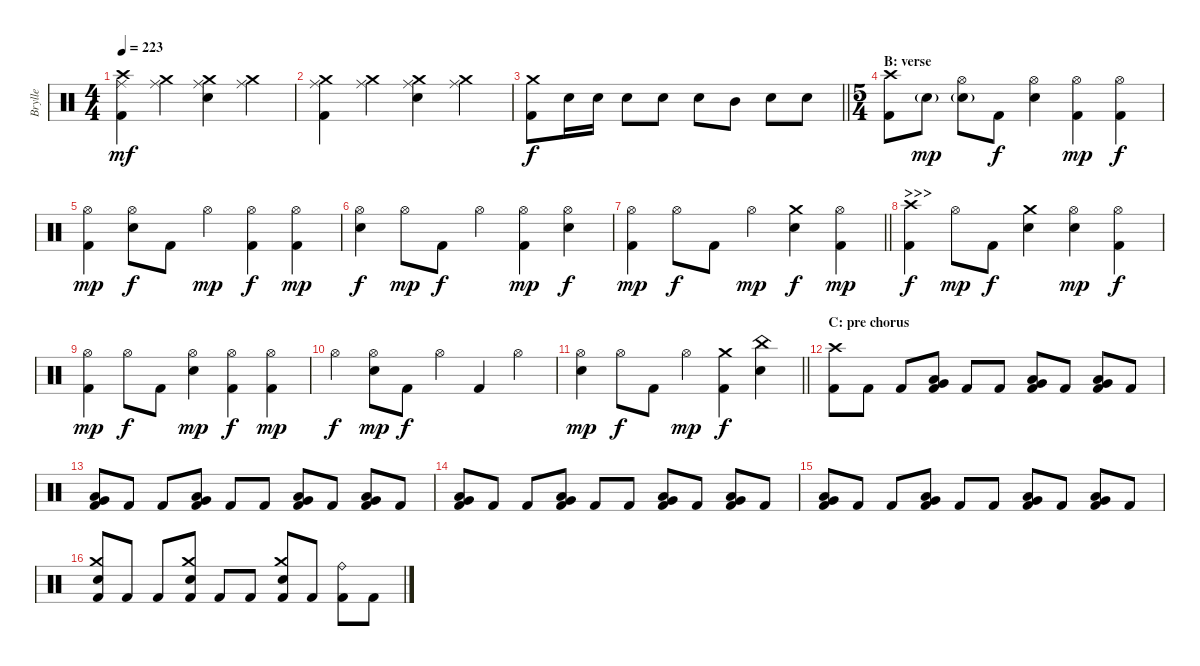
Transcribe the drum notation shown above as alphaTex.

\track ("Brylle" "Brylle") {instrument percussion}
\staff {score}
\articulation defaults
\ts (4 4)
\tempo 223
\clef neutral
\ks c
("Crash high (hit)" "Ride (middle)" "Kick (hit) 2").4{dy mf} ("Crash medium (hit)" "Ride (middle)").4 ("Crash medium (hit)" "Ride (middle)" "Electric Snare (hit)").4 ("Crash medium (hit)" "Ride (middle)").4 |
("Crash medium (hit)" "Ride (middle)" "Kick (hit) 2").4 ("Crash medium (hit)" "Ride (middle)").4 ("Crash medium (hit)" "Ride (middle)" "Electric Snare (hit)").4 ("Crash medium (hit)" "Ride (middle)").4 |
\barLineRight lightlight
("Crash medium (hit)" "Kick (hit) 2").8{dy f} "Electric Snare (hit)".16 "Electric Snare (hit)".16 "Electric Snare (hit)".8 "Electric Snare (hit)".8 "Electric Snare (hit)".8 "Mid Tom (hit)".8 "Electric Snare (hit)".8 "Electric Snare (hit)".8 |
\ts (5 4)
\section ("" "B: verse")
("Crash high (hit)" "Kick (hit) 2").8 "Electric Snare (hit)"{g}.8{dy mp} ("Hi-Hat (open)" "Electric Snare (hit)"{g}).8 "Kick (hit) 2".8{dy f} ("Hi-Hat (open)" "Electric Snare (hit)").4 ("Hi-Hat (open)" "Kick (hit) 2").4{dy mp} ("Hi-Hat (open)" "Kick (hit) 2").4{dy f} |
("Hi-Hat (open)" "Kick (hit) 2").4{dy mp} ("Hi-Hat (open)" "Electric Snare (hit)").8{dy f} "Kick (hit) 2".8 "Hi-Hat (open)".4{dy mp} ("Hi-Hat (open)" "Kick (hit) 2").4{dy f} ("Hi-Hat (open)" "Kick (hit) 2").4{dy mp} |
("Hi-Hat (open)" "Electric Snare (hit)").4{dy f} "Hi-Hat (open)".8{dy mp} "Kick (hit) 2".8{dy f} "Hi-Hat (open)".4 ("Hi-Hat (open)" "Kick (hit) 2").4{dy mp} ("Hi-Hat (open)" "Electric Snare (hit)").4{dy f} |
\barLineRight lightlight
("Hi-Hat (open)" "Kick (hit) 2").4{dy mp} "Hi-Hat (open)".8{dy f} "Kick (hit) 2".8 "Hi-Hat (open)".4{dy mp} ("Crash medium (hit)" "Electric Snare (hit)").4{dy f} ("Hi-Hat (open)" "Kick (hit) 2").4{dy mp} |
\section ("" ">>>")
("Crash high (hit)" "Kick (hit) 2").4{dy f} "Hi-Hat (open)".8{dy mp} "Kick (hit) 2".8{dy f} ("Crash medium (hit)" "Electric Snare (hit)").4 ("Hi-Hat (open)" "Electric Snare (hit)").4{dy mp} ("Hi-Hat (open)" "Kick (hit) 2").4{dy f} |
("Hi-Hat (open)" "Kick (hit) 2").4{dy mp} "Hi-Hat (open)".8{dy f} "Kick (hit) 2".8 ("Hi-Hat (open)" "Electric Snare (hit)").4{dy mp} ("Hi-Hat (open)" "Kick (hit) 2").4{dy f} ("Hi-Hat (open)" "Kick (hit) 2").4{dy mp} |
"Hi-Hat (open)".4{dy f} ("Hi-Hat (open)" "Electric Snare (hit)").8{dy mp} "Kick (hit) 2".8{dy f} "Hi-Hat (open)".4 "Kick (hit) 2".4 "Hi-Hat (open)".4 |
\barLineRight lightlight
("Hi-Hat (open)" "Electric Snare (hit)").4{dy mp} "Hi-Hat (open)".8{dy f} "Kick (hit) 2".8 "Hi-Hat (open)".4{dy mp} ("Crash medium (hit)" "Kick (hit) 2").4{dy f} ("China (hit)" "Electric Snare (hit)").4 |
\section ("" "C: pre chorus")
("Crash high (hit)" "Kick (hit) 2").8 "Kick (hit) 2".8 "Kick (hit) 2".8 ("Low Tom (hit)" "Very Low Tom (hit)" "Kick (hit) 2").8 "Kick (hit) 2".8 "Kick (hit) 2".8 ("Low Tom (hit)" "Very Low Tom (hit)" "Kick (hit) 2").8 "Kick (hit) 2".8 ("Low Tom (hit)" "Very Low Tom (hit)" "Kick (hit) 2").8 "Kick (hit) 2".8 |
("Low Tom (hit)" "Very Low Tom (hit)" "Kick (hit) 2").8 "Kick (hit) 2".8 "Kick (hit) 2".8 ("Low Tom (hit)" "Very Low Tom (hit)" "Kick (hit) 2").8 "Kick (hit) 2".8 "Kick (hit) 2".8 ("Low Tom (hit)" "Very Low Tom (hit)" "Kick (hit) 2").8 "Kick (hit) 2".8 ("Low Tom (hit)" "Very Low Tom (hit)" "Kick (hit) 2").8 "Kick (hit) 2".8 |
("Low Tom (hit)" "Very Low Tom (hit)" "Kick (hit) 2").8 "Kick (hit) 2".8 "Kick (hit) 2".8 ("Low Tom (hit)" "Very Low Tom (hit)" "Kick (hit) 2").8 "Kick (hit) 2".8 "Kick (hit) 2".8 ("Low Tom (hit)" "Very Low Tom (hit)" "Kick (hit) 2").8 "Kick (hit) 2".8 ("Low Tom (hit)" "Very Low Tom (hit)" "Kick (hit) 2").8 "Kick (hit) 2".8 |
("Low Tom (hit)" "Very Low Tom (hit)" "Kick (hit) 2").8 "Kick (hit) 2".8 "Kick (hit) 2".8 ("Low Tom (hit)" "Very Low Tom (hit)" "Kick (hit) 2").8 "Kick (hit) 2".8 "Kick (hit) 2".8 ("Low Tom (hit)" "Very Low Tom (hit)" "Kick (hit) 2").8 "Kick (hit) 2".8 ("Low Tom (hit)" "Very Low Tom (hit)" "Kick (hit) 2").8 "Kick (hit) 2".8 |
("Crash medium (hit)" "Electric Snare (hit)" "Kick (hit) 2").8 "Kick (hit) 2".8 "Kick (hit) 2".8 ("Crash medium (hit)" "Electric Snare (hit)" "Kick (hit) 2").8 "Kick (hit) 2".8 "Kick (hit) 2".8 ("Crash medium (hit)" "Electric Snare (hit)" "Kick (hit) 2").8 "Kick (hit) 2".8 ("Ride (bell)" "Kick (hit) 2").8 "Kick (hit) 2".8
